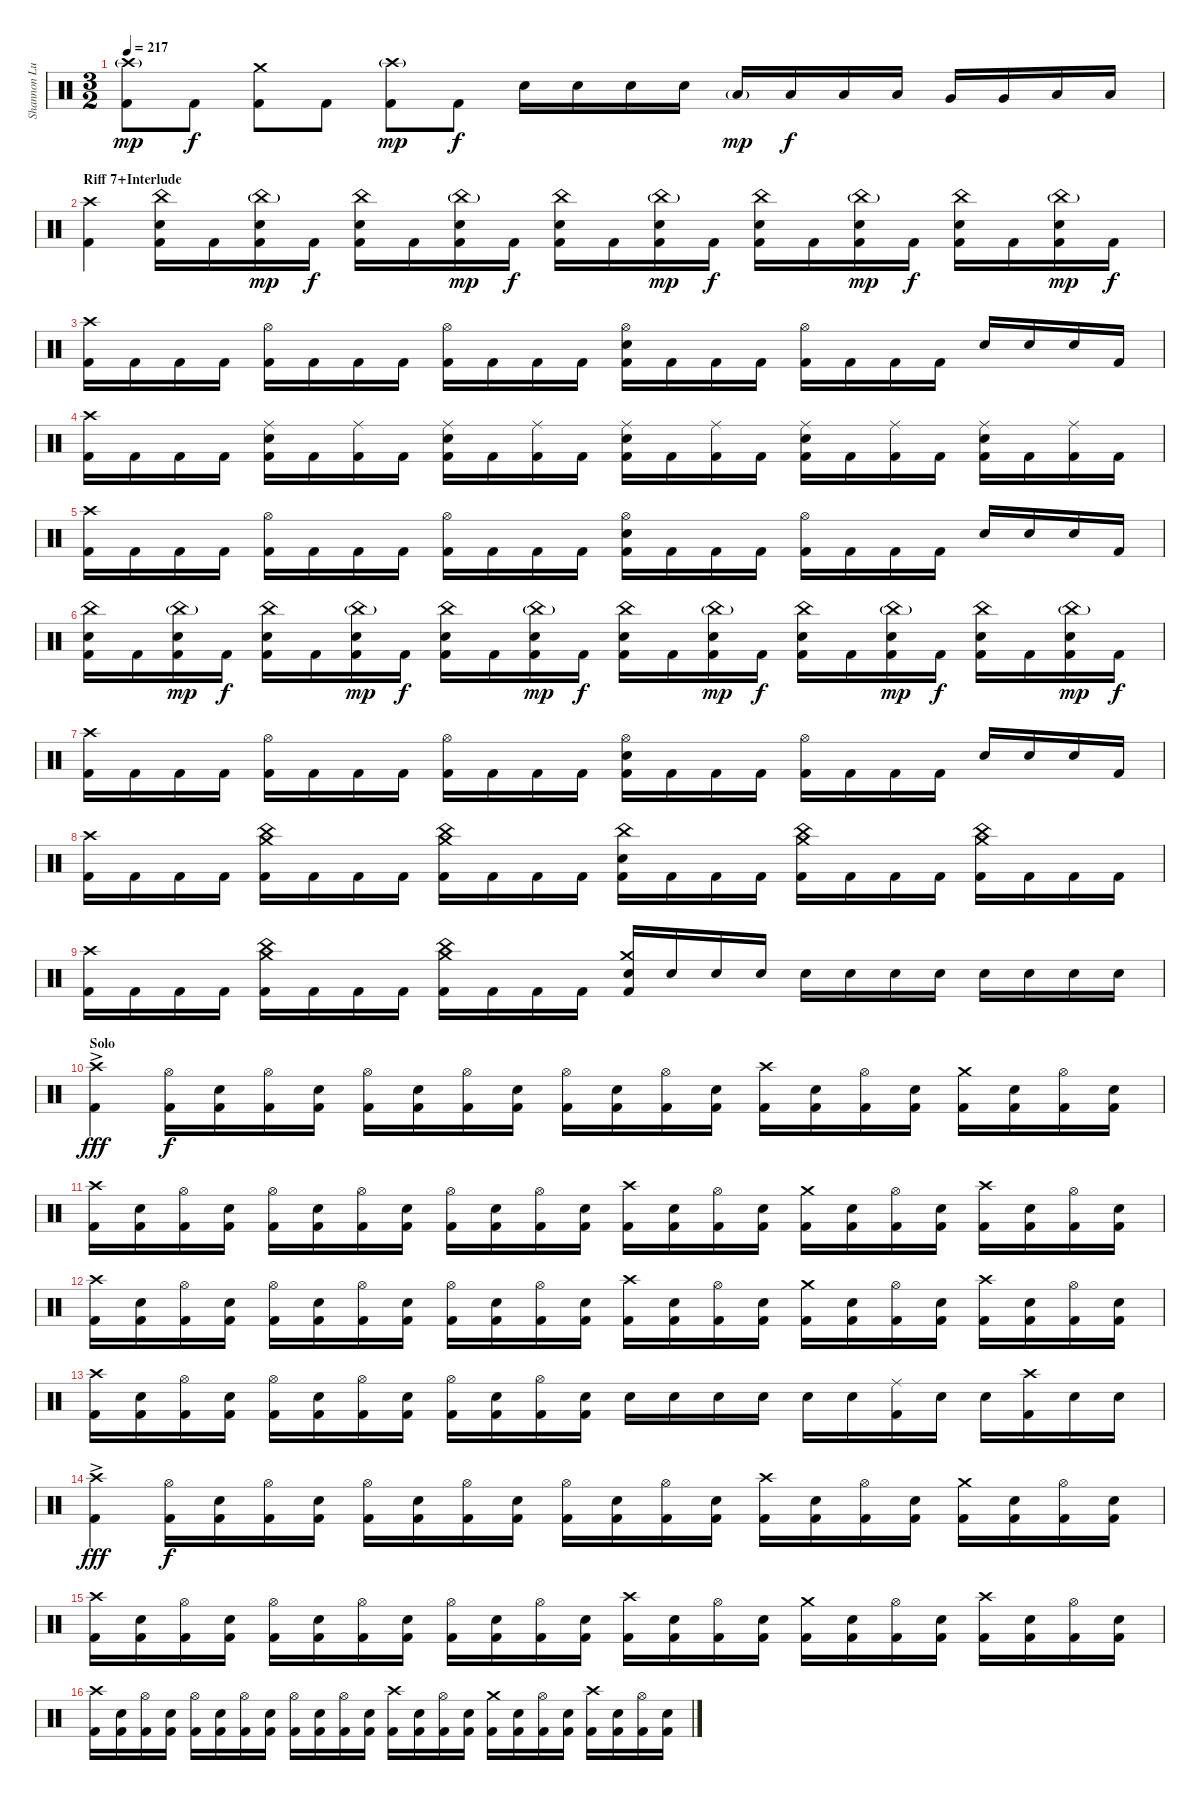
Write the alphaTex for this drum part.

\track ("Shannon Lucas (Drums)" "Shannon Lu") {instrument percussion}
\staff {score}
\articulation defaults
\ts (3 2)
\tempo 217
\clef neutral
\ks c
("Crash high (hit)"{g} "Kick (hit) 2").8{dy mp} "Kick (hit) 2".8{dy f} ("Crash medium (hit)" "Kick (hit) 2").8 "Kick (hit) 2".8 ("Crash high (hit)"{g} "Kick (hit) 2").8{dy mp} "Kick (hit) 2".8{dy f} "Snare (hit) 2".16 "Snare (hit) 2".16 "Snare (hit) 2".16 "Snare (hit) 2".16 "Low Tom (hit)"{g}.16{dy mp} "Low Tom (hit)".16{dy f} "Low Tom (hit)".16 "Low Tom (hit)".16 "Very Low Tom (hit)".16 "Very Low Tom (hit)".16 "Low Floor Tom (hit)".16 "Low Floor Tom (hit)".16 |
\section ("" "Riff 7+Interlude")
("Crash high (hit)" "Kick (hit) 2").4 ("China (hit)" "Snare (hit) 2" "Kick (hit) 2").16 "Kick (hit) 2".16 ("China (hit)"{g} "Snare (hit) 2" "Kick (hit) 2").16{dy mp} "Kick (hit) 2".16{dy f} ("China (hit)" "Snare (hit) 2" "Kick (hit) 2").16 "Kick (hit) 2".16 ("China (hit)"{g} "Snare (hit) 2" "Kick (hit) 2").16{dy mp} "Kick (hit) 2".16{dy f} ("China (hit)" "Snare (hit) 2" "Kick (hit) 2").16 "Kick (hit) 2".16 ("China (hit)"{g} "Snare (hit) 2" "Kick (hit) 2").16{dy mp} "Kick (hit) 2".16{dy f} ("China (hit)" "Snare (hit) 2" "Kick (hit) 2").16 "Kick (hit) 2".16 ("China (hit)"{g} "Snare (hit) 2" "Kick (hit) 2").16{dy mp} "Kick (hit) 2".16{dy f} ("China (hit)" "Snare (hit) 2" "Kick (hit) 2").16 "Kick (hit) 2".16 ("China (hit)"{g} "Snare (hit) 2" "Kick (hit) 2").16{dy mp} "Kick (hit) 2".16{dy f} |
("Crash high (hit)" "Kick (hit) 2").16 "Kick (hit) 2".16 "Kick (hit) 2".16 "Kick (hit) 2".16 ("Hi-Hat (open)" "Kick (hit) 2").16 "Kick (hit) 2".16 "Kick (hit) 2".16 "Kick (hit) 2".16 ("Hi-Hat (open)" "Kick (hit) 2").16 "Kick (hit) 2".16 "Kick (hit) 2".16 "Kick (hit) 2".16 ("Hi-Hat (open)" "Snare (hit) 2" "Kick (hit) 2").16 "Kick (hit) 2".16 "Kick (hit) 2".16 "Kick (hit) 2".16 ("Hi-Hat (open)" "Kick (hit) 2").16 "Kick (hit) 2".16 "Kick (hit) 2".16 "Kick (hit) 2".16 "Snare (hit) 2".16 "Snare (hit) 2".16 "Snare (hit) 2".16 "Kick (hit) 2".16 |
("Crash high (hit)" "Kick (hit) 2").16 "Kick (hit) 2".16 "Kick (hit) 2".16 "Kick (hit) 2".16 ("Ride (middle)" "Snare (hit) 2" "Kick (hit) 2").16 "Kick (hit) 2".16 ("Ride (middle)" "Kick (hit) 2").16 "Kick (hit) 2".16 ("Ride (middle)" "Snare (hit) 2" "Kick (hit) 2").16 "Kick (hit) 2".16 ("Ride (middle)" "Kick (hit) 2").16 "Kick (hit) 2".16 ("Ride (middle)" "Snare (hit) 2" "Kick (hit) 2").16 "Kick (hit) 2".16 ("Ride (middle)" "Kick (hit) 2").16 "Kick (hit) 2".16 ("Ride (middle)" "Snare (hit) 2" "Kick (hit) 2").16 "Kick (hit) 2".16 ("Ride (middle)" "Kick (hit) 2").16 "Kick (hit) 2".16 ("Ride (middle)" "Snare (hit) 2" "Kick (hit) 2").16 "Kick (hit) 2".16 ("Ride (middle)" "Kick (hit) 2").16 "Kick (hit) 2".16 |
("Crash high (hit)" "Kick (hit) 2").16 "Kick (hit) 2".16 "Kick (hit) 2".16 "Kick (hit) 2".16 ("Hi-Hat (open)" "Kick (hit) 2").16 "Kick (hit) 2".16 "Kick (hit) 2".16 "Kick (hit) 2".16 ("Hi-Hat (open)" "Kick (hit) 2").16 "Kick (hit) 2".16 "Kick (hit) 2".16 "Kick (hit) 2".16 ("Hi-Hat (open)" "Snare (hit) 2" "Kick (hit) 2").16 "Kick (hit) 2".16 "Kick (hit) 2".16 "Kick (hit) 2".16 ("Hi-Hat (open)" "Kick (hit) 2").16 "Kick (hit) 2".16 "Kick (hit) 2".16 "Kick (hit) 2".16 "Snare (hit) 2".16 "Snare (hit) 2".16 "Snare (hit) 2".16 "Kick (hit) 2".16 |
("China (hit)" "Snare (hit) 2" "Kick (hit) 2").16 "Kick (hit) 2".16 ("China (hit)"{g} "Snare (hit) 2" "Kick (hit) 2").16{dy mp} "Kick (hit) 2".16{dy f} ("China (hit)" "Snare (hit) 2" "Kick (hit) 2").16 "Kick (hit) 2".16 ("China (hit)"{g} "Snare (hit) 2" "Kick (hit) 2").16{dy mp} "Kick (hit) 2".16{dy f} ("China (hit)" "Snare (hit) 2" "Kick (hit) 2").16 "Kick (hit) 2".16 ("China (hit)"{g} "Snare (hit) 2" "Kick (hit) 2").16{dy mp} "Kick (hit) 2".16{dy f} ("China (hit)" "Snare (hit) 2" "Kick (hit) 2").16 "Kick (hit) 2".16 ("China (hit)"{g} "Snare (hit) 2" "Kick (hit) 2").16{dy mp} "Kick (hit) 2".16{dy f} ("China (hit)" "Snare (hit) 2" "Kick (hit) 2").16 "Kick (hit) 2".16 ("China (hit)"{g} "Snare (hit) 2" "Kick (hit) 2").16{dy mp} "Kick (hit) 2".16{dy f} ("China (hit)" "Snare (hit) 2" "Kick (hit) 2").16 "Kick (hit) 2".16 ("China (hit)"{g} "Snare (hit) 2" "Kick (hit) 2").16{dy mp} "Kick (hit) 2".16{dy f} |
("Crash high (hit)" "Kick (hit) 2").16 "Kick (hit) 2".16 "Kick (hit) 2".16 "Kick (hit) 2".16 ("Hi-Hat (open)" "Kick (hit) 2").16 "Kick (hit) 2".16 "Kick (hit) 2".16 "Kick (hit) 2".16 ("Hi-Hat (open)" "Kick (hit) 2").16 "Kick (hit) 2".16 "Kick (hit) 2".16 "Kick (hit) 2".16 ("Hi-Hat (open)" "Snare (hit) 2" "Kick (hit) 2").16 "Kick (hit) 2".16 "Kick (hit) 2".16 "Kick (hit) 2".16 ("Hi-Hat (open)" "Kick (hit) 2").16 "Kick (hit) 2".16 "Kick (hit) 2".16 "Kick (hit) 2".16 "Snare (hit) 2".16 "Snare (hit) 2".16 "Snare (hit) 2".16 "Kick (hit) 2".16 |
("Crash high (hit)" "Kick (hit) 2").16 "Kick (hit) 2".16 "Kick (hit) 2".16 "Kick (hit) 2".16 ("Crash medium (hit)" "China (hit)" "Kick (hit) 2").16 "Kick (hit) 2".16 "Kick (hit) 2".16 "Kick (hit) 2".16 ("Crash medium (hit)" "China (hit)" "Kick (hit) 2").16 "Kick (hit) 2".16 "Kick (hit) 2".16 "Kick (hit) 2".16 ("Snare (hit) 2" "China (hit)" "Kick (hit) 2").16 "Kick (hit) 2".16 "Kick (hit) 2".16 "Kick (hit) 2".16 ("Crash medium (hit)" "China (hit)" "Kick (hit) 2").16 "Kick (hit) 2".16 "Kick (hit) 2".16 "Kick (hit) 2".16 ("Crash medium (hit)" "China (hit)" "Kick (hit) 2").16 "Kick (hit) 2".16 "Kick (hit) 2".16 "Kick (hit) 2".16 |
("Crash high (hit)" "Kick (hit) 2").16 "Kick (hit) 2".16 "Kick (hit) 2".16 "Kick (hit) 2".16 ("Crash medium (hit)" "China (hit)" "Kick (hit) 2").16 "Kick (hit) 2".16 "Kick (hit) 2".16 "Kick (hit) 2".16 ("Crash medium (hit)" "China (hit)" "Kick (hit) 2").16 "Kick (hit) 2".16 "Kick (hit) 2".16 "Kick (hit) 2".16 ("Snare (hit) 2" "Crash medium (hit)" "Kick (hit) 2").16 "Snare (hit) 2".16 "Snare (hit) 2".16 "Snare (hit) 2".16 "Snare (hit) 2".16 "Snare (hit) 2".16 "Snare (hit) 2".16 "Snare (hit) 2".16 "Snare (hit) 2".16 "Snare (hit) 2".16 "Snare (hit) 2".16 "Snare (hit) 2".16 |
\section ("" "Solo")
("Crash high (hit)"{ac} "Kick (hit) 2").4{dy fff} ("Hi-Hat (open)" "Kick (hit) 2").16{dy f} ("Snare (hit) 2" "Kick (hit) 2").16 ("Hi-Hat (open)" "Kick (hit) 2").16 ("Snare (hit) 2" "Kick (hit) 2").16 ("Hi-Hat (open)" "Kick (hit) 2").16 ("Snare (hit) 2" "Kick (hit) 2").16 ("Hi-Hat (open)" "Kick (hit) 2").16 ("Snare (hit) 2" "Kick (hit) 2").16 ("Hi-Hat (open)" "Kick (hit) 2").16 ("Snare (hit) 2" "Kick (hit) 2").16 ("Hi-Hat (open)" "Kick (hit) 2").16 ("Snare (hit) 2" "Kick (hit) 2").16 ("Crash high (hit)" "Kick (hit) 2").16 ("Snare (hit) 2" "Kick (hit) 2").16 ("Hi-Hat (open)" "Kick (hit) 2").16 ("Snare (hit) 2" "Kick (hit) 2").16 ("Crash medium (hit)" "Kick (hit) 2").16 ("Snare (hit) 2" "Kick (hit) 2").16 ("Hi-Hat (open)" "Kick (hit) 2").16 ("Snare (hit) 2" "Kick (hit) 2").16 |
("Crash high (hit)" "Kick (hit) 2").16 ("Snare (hit) 2" "Kick (hit) 2").16 ("Hi-Hat (open)" "Kick (hit) 2").16 ("Snare (hit) 2" "Kick (hit) 2").16 ("Hi-Hat (open)" "Kick (hit) 2").16 ("Snare (hit) 2" "Kick (hit) 2").16 ("Hi-Hat (open)" "Kick (hit) 2").16 ("Snare (hit) 2" "Kick (hit) 2").16 ("Hi-Hat (open)" "Kick (hit) 2").16 ("Snare (hit) 2" "Kick (hit) 2").16 ("Hi-Hat (open)" "Kick (hit) 2").16 ("Snare (hit) 2" "Kick (hit) 2").16 ("Crash high (hit)" "Kick (hit) 2").16 ("Snare (hit) 2" "Kick (hit) 2").16 ("Hi-Hat (open)" "Kick (hit) 2").16 ("Snare (hit) 2" "Kick (hit) 2").16 ("Crash medium (hit)" "Kick (hit) 2").16 ("Snare (hit) 2" "Kick (hit) 2").16 ("Hi-Hat (open)" "Kick (hit) 2").16 ("Snare (hit) 2" "Kick (hit) 2").16 ("Crash high (hit)" "Kick (hit) 2").16 ("Snare (hit) 2" "Kick (hit) 2").16 ("Hi-Hat (open)" "Kick (hit) 2").16 ("Snare (hit) 2" "Kick (hit) 2").16 |
("Crash high (hit)" "Kick (hit) 2").16 ("Snare (hit) 2" "Kick (hit) 2").16 ("Hi-Hat (open)" "Kick (hit) 2").16 ("Snare (hit) 2" "Kick (hit) 2").16 ("Hi-Hat (open)" "Kick (hit) 2").16 ("Snare (hit) 2" "Kick (hit) 2").16 ("Hi-Hat (open)" "Kick (hit) 2").16 ("Snare (hit) 2" "Kick (hit) 2").16 ("Hi-Hat (open)" "Kick (hit) 2").16 ("Snare (hit) 2" "Kick (hit) 2").16 ("Hi-Hat (open)" "Kick (hit) 2").16 ("Snare (hit) 2" "Kick (hit) 2").16 ("Crash high (hit)" "Kick (hit) 2").16 ("Snare (hit) 2" "Kick (hit) 2").16 ("Hi-Hat (open)" "Kick (hit) 2").16 ("Snare (hit) 2" "Kick (hit) 2").16 ("Crash medium (hit)" "Kick (hit) 2").16 ("Snare (hit) 2" "Kick (hit) 2").16 ("Hi-Hat (open)" "Kick (hit) 2").16 ("Snare (hit) 2" "Kick (hit) 2").16 ("Crash high (hit)" "Kick (hit) 2").16 ("Snare (hit) 2" "Kick (hit) 2").16 ("Hi-Hat (open)" "Kick (hit) 2").16 ("Snare (hit) 2" "Kick (hit) 2").16 |
("Crash high (hit)" "Kick (hit) 2").16 ("Snare (hit) 2" "Kick (hit) 2").16 ("Hi-Hat (open)" "Kick (hit) 2").16 ("Snare (hit) 2" "Kick (hit) 2").16 ("Hi-Hat (open)" "Kick (hit) 2").16 ("Snare (hit) 2" "Kick (hit) 2").16 ("Hi-Hat (open)" "Kick (hit) 2").16 ("Snare (hit) 2" "Kick (hit) 2").16 ("Hi-Hat (open)" "Kick (hit) 2").16 ("Snare (hit) 2" "Kick (hit) 2").16 ("Hi-Hat (open)" "Kick (hit) 2").16 ("Snare (hit) 2" "Kick (hit) 2").16 "Snare (hit) 2".16 "Snare (hit) 2".16 "Snare (hit) 2".16 "Snare (hit) 2".16 "Snare (hit) 2".16 "Snare (hit) 2".16 ("Ride (middle)" "Kick (hit) 2").16 "Snare (hit) 2".16 "Snare (hit) 2".16 ("Crash high (hit)" "Kick (hit) 2").16 "Snare (hit) 2".16 "Snare (hit) 2".16 |
("Crash high (hit)"{ac} "Kick (hit) 2").4{dy fff} ("Hi-Hat (open)" "Kick (hit) 2").16{dy f} ("Snare (hit) 2" "Kick (hit) 2").16 ("Hi-Hat (open)" "Kick (hit) 2").16 ("Snare (hit) 2" "Kick (hit) 2").16 ("Hi-Hat (open)" "Kick (hit) 2").16 ("Snare (hit) 2" "Kick (hit) 2").16 ("Hi-Hat (open)" "Kick (hit) 2").16 ("Snare (hit) 2" "Kick (hit) 2").16 ("Hi-Hat (open)" "Kick (hit) 2").16 ("Snare (hit) 2" "Kick (hit) 2").16 ("Hi-Hat (open)" "Kick (hit) 2").16 ("Snare (hit) 2" "Kick (hit) 2").16 ("Crash high (hit)" "Kick (hit) 2").16 ("Snare (hit) 2" "Kick (hit) 2").16 ("Hi-Hat (open)" "Kick (hit) 2").16 ("Snare (hit) 2" "Kick (hit) 2").16 ("Crash medium (hit)" "Kick (hit) 2").16 ("Snare (hit) 2" "Kick (hit) 2").16 ("Hi-Hat (open)" "Kick (hit) 2").16 ("Snare (hit) 2" "Kick (hit) 2").16 |
("Crash high (hit)" "Kick (hit) 2").16 ("Snare (hit) 2" "Kick (hit) 2").16 ("Hi-Hat (open)" "Kick (hit) 2").16 ("Snare (hit) 2" "Kick (hit) 2").16 ("Hi-Hat (open)" "Kick (hit) 2").16 ("Snare (hit) 2" "Kick (hit) 2").16 ("Hi-Hat (open)" "Kick (hit) 2").16 ("Snare (hit) 2" "Kick (hit) 2").16 ("Hi-Hat (open)" "Kick (hit) 2").16 ("Snare (hit) 2" "Kick (hit) 2").16 ("Hi-Hat (open)" "Kick (hit) 2").16 ("Snare (hit) 2" "Kick (hit) 2").16 ("Crash high (hit)" "Kick (hit) 2").16 ("Snare (hit) 2" "Kick (hit) 2").16 ("Hi-Hat (open)" "Kick (hit) 2").16 ("Snare (hit) 2" "Kick (hit) 2").16 ("Crash medium (hit)" "Kick (hit) 2").16 ("Snare (hit) 2" "Kick (hit) 2").16 ("Hi-Hat (open)" "Kick (hit) 2").16 ("Snare (hit) 2" "Kick (hit) 2").16 ("Crash high (hit)" "Kick (hit) 2").16 ("Snare (hit) 2" "Kick (hit) 2").16 ("Hi-Hat (open)" "Kick (hit) 2").16 ("Snare (hit) 2" "Kick (hit) 2").16 |
("Crash high (hit)" "Kick (hit) 2").16 ("Snare (hit) 2" "Kick (hit) 2").16 ("Hi-Hat (open)" "Kick (hit) 2").16 ("Snare (hit) 2" "Kick (hit) 2").16 ("Hi-Hat (open)" "Kick (hit) 2").16 ("Snare (hit) 2" "Kick (hit) 2").16 ("Hi-Hat (open)" "Kick (hit) 2").16 ("Snare (hit) 2" "Kick (hit) 2").16 ("Hi-Hat (open)" "Kick (hit) 2").16 ("Snare (hit) 2" "Kick (hit) 2").16 ("Hi-Hat (open)" "Kick (hit) 2").16 ("Snare (hit) 2" "Kick (hit) 2").16 ("Crash high (hit)" "Kick (hit) 2").16 ("Snare (hit) 2" "Kick (hit) 2").16 ("Hi-Hat (open)" "Kick (hit) 2").16 ("Snare (hit) 2" "Kick (hit) 2").16 ("Crash medium (hit)" "Kick (hit) 2").16 ("Snare (hit) 2" "Kick (hit) 2").16 ("Hi-Hat (open)" "Kick (hit) 2").16 ("Snare (hit) 2" "Kick (hit) 2").16 ("Crash high (hit)" "Kick (hit) 2").16 ("Snare (hit) 2" "Kick (hit) 2").16 ("Hi-Hat (open)" "Kick (hit) 2").16 ("Snare (hit) 2" "Kick (hit) 2").16
